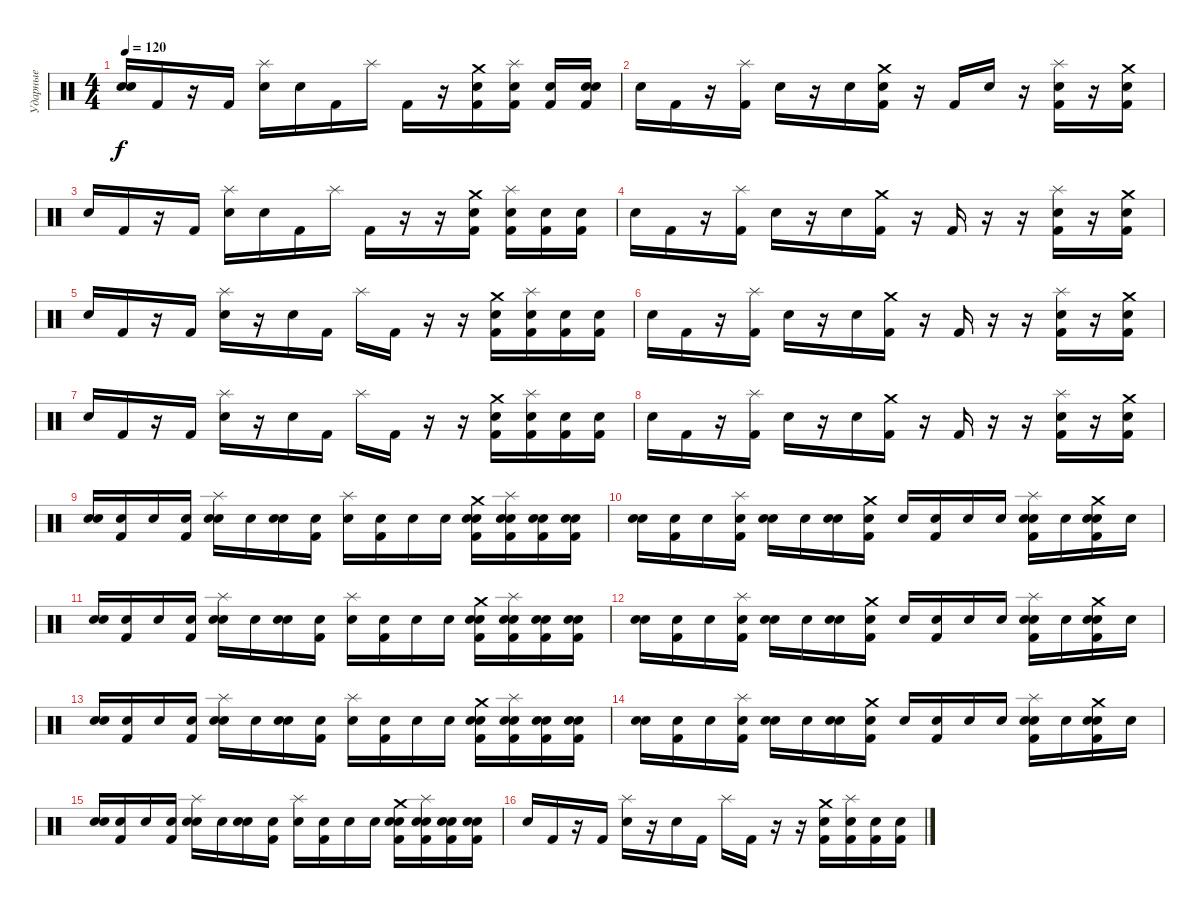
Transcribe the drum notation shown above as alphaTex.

\track ("Ударные" "Ударные") {instrument percussion}
\staff {score}
\articulation defaults
\ts (4 4)
\tempo 120
\clef neutral
\ks c
("Snare (hit)" "Electric Snare (hit)").16{dy f} "Kick (hit) 2".16 r.16 "Kick (hit) 2".16 ("Splash (hit)" "Electric Snare (hit)").16 "Electric Snare (hit)".16 "Kick (hit) 2".16 "Splash (hit)".16 "Kick (hit) 2".16 r.16 ("Crash medium (hit)" "Electric Snare (hit)" "Kick (hit) 2").16 ("Splash (hit)" "Electric Snare (hit)" "Kick (hit) 2").16 ("Electric Snare (hit)" "Kick (hit) 2").16 ("Snare (hit)" "Electric Snare (hit)" "Kick (hit) 2").16 |
"Electric Snare (hit)".16 "Kick (hit) 2".16 r.16 ("Splash (hit)" "Kick (hit) 2").16 "Electric Snare (hit)".16 r.16 "Electric Snare (hit)".16 ("Crash medium (hit)" "Snare (hit)" "Kick (hit) 2").16 r.16 "Kick (hit) 2".16 "Snare (hit)".16 r.16 ("Splash (hit)" "Electric Snare (hit)" "Kick (hit) 2").16 r.16 ("Crash medium (hit)" "Electric Snare (hit)" "Kick (hit) 2").16 |
"Electric Snare (hit)".16 "Kick (hit) 2".16 r.16 "Kick (hit) 2".16 ("Splash (hit)" "Electric Snare (hit)").16 "Electric Snare (hit)".16 "Kick (hit) 2".16 "Splash (hit)".16 "Kick (hit) 2".16 r.16 r.16 ("Crash medium (hit)" "Electric Snare (hit)" "Kick (hit) 2").16 ("Splash (hit)" "Electric Snare (hit)" "Kick (hit) 2").16 ("Electric Snare (hit)" "Kick (hit) 2").16 ("Electric Snare (hit)" "Kick (hit) 2").16 |
"Electric Snare (hit)".16 "Kick (hit) 2".16 r.16 ("Splash (hit)" "Kick (hit) 2").16 "Electric Snare (hit)".16 r.16 "Electric Snare (hit)".16 ("Crash medium (hit)" "Kick (hit) 2").16 r.16 "Kick (hit) 2".16 r.16 r.16 ("Splash (hit)" "Electric Snare (hit)" "Kick (hit) 2").16 r.16 ("Crash medium (hit)" "Electric Snare (hit)" "Kick (hit) 2").16 |
"Electric Snare (hit)".16 "Kick (hit) 2".16 r.16 "Kick (hit) 2".16 ("Splash (hit)" "Electric Snare (hit)").16 r.16 "Electric Snare (hit)".16 "Kick (hit) 2".16 "Splash (hit)".16 "Kick (hit) 2".16 r.16 r.16 ("Crash medium (hit)" "Electric Snare (hit)" "Kick (hit) 2").16 ("Splash (hit)" "Electric Snare (hit)" "Kick (hit) 2").16 ("Electric Snare (hit)" "Kick (hit) 2").16 ("Electric Snare (hit)" "Kick (hit) 2").16 |
"Electric Snare (hit)".16 "Kick (hit) 2".16 r.16 ("Splash (hit)" "Kick (hit) 2").16 "Electric Snare (hit)".16 r.16 "Electric Snare (hit)".16 ("Crash medium (hit)" "Kick (hit) 2").16 r.16 "Kick (hit) 2".16 r.16 r.16 ("Splash (hit)" "Electric Snare (hit)" "Kick (hit) 2").16 r.16 ("Crash medium (hit)" "Electric Snare (hit)" "Kick (hit) 2").16 |
"Electric Snare (hit)".16 "Kick (hit) 2".16 r.16 "Kick (hit) 2".16 ("Splash (hit)" "Electric Snare (hit)").16 r.16 "Electric Snare (hit)".16 "Kick (hit) 2".16 "Splash (hit)".16 "Kick (hit) 2".16 r.16 r.16 ("Crash medium (hit)" "Electric Snare (hit)" "Kick (hit) 2").16 ("Splash (hit)" "Electric Snare (hit)" "Kick (hit) 2").16 ("Electric Snare (hit)" "Kick (hit) 2").16 ("Electric Snare (hit)" "Kick (hit) 2").16 |
"Electric Snare (hit)".16 "Kick (hit) 2".16 r.16 ("Splash (hit)" "Kick (hit) 2").16 "Electric Snare (hit)".16 r.16 "Electric Snare (hit)".16 ("Crash medium (hit)" "Kick (hit) 2").16 r.16 "Kick (hit) 2".16 r.16 r.16 ("Splash (hit)" "Electric Snare (hit)" "Kick (hit) 2").16 r.16 ("Crash medium (hit)" "Electric Snare (hit)" "Kick (hit) 2").16 |
("Snare (hit)" "Electric Snare (hit)").16 ("Snare (hit)" "Kick (hit) 2").16 "Snare (hit)".16 ("Snare (hit)" "Kick (hit) 2").16 ("Splash (hit)" "Snare (hit)" "Electric Snare (hit)").16 "Snare (hit)".16 ("Snare (hit)" "Electric Snare (hit)").16 ("Snare (hit)" "Kick (hit) 2").16 ("Splash (hit)" "Snare (hit)").16 ("Snare (hit)" "Kick (hit) 2").16 "Snare (hit)".16 "Snare (hit)".16 ("Crash medium (hit)" "Snare (hit)" "Electric Snare (hit)" "Kick (hit) 2").16 ("Splash (hit)" "Snare (hit)" "Electric Snare (hit)" "Kick (hit) 2").16 ("Snare (hit)" "Electric Snare (hit)" "Kick (hit) 2").16 ("Snare (hit)" "Electric Snare (hit)" "Kick (hit) 2").16 |
("Snare (hit)" "Electric Snare (hit)").16 ("Snare (hit)" "Kick (hit) 2").16 "Snare (hit)".16 ("Splash (hit)" "Snare (hit)" "Kick (hit) 2").16 ("Snare (hit)" "Electric Snare (hit)").16 "Snare (hit)".16 ("Snare (hit)" "Electric Snare (hit)").16 ("Crash medium (hit)" "Snare (hit)" "Kick (hit) 2").16 "Snare (hit)".16 ("Snare (hit)" "Kick (hit) 2").16 "Snare (hit)".16 "Snare (hit)".16 ("Splash (hit)" "Snare (hit)" "Electric Snare (hit)" "Kick (hit) 2").16 "Snare (hit)".16 ("Crash medium (hit)" "Snare (hit)" "Electric Snare (hit)" "Kick (hit) 2").16 "Snare (hit)".16 |
("Snare (hit)" "Electric Snare (hit)").16 ("Snare (hit)" "Kick (hit) 2").16 "Snare (hit)".16 ("Snare (hit)" "Kick (hit) 2").16 ("Splash (hit)" "Snare (hit)" "Electric Snare (hit)").16 "Snare (hit)".16 ("Snare (hit)" "Electric Snare (hit)").16 ("Snare (hit)" "Kick (hit) 2").16 ("Splash (hit)" "Snare (hit)").16 ("Snare (hit)" "Kick (hit) 2").16 "Snare (hit)".16 "Snare (hit)".16 ("Crash medium (hit)" "Snare (hit)" "Electric Snare (hit)" "Kick (hit) 2").16 ("Splash (hit)" "Snare (hit)" "Electric Snare (hit)" "Kick (hit) 2").16 ("Snare (hit)" "Electric Snare (hit)" "Kick (hit) 2").16 ("Snare (hit)" "Electric Snare (hit)" "Kick (hit) 2").16 |
("Snare (hit)" "Electric Snare (hit)").16 ("Snare (hit)" "Kick (hit) 2").16 "Snare (hit)".16 ("Splash (hit)" "Snare (hit)" "Kick (hit) 2").16 ("Snare (hit)" "Electric Snare (hit)").16 "Snare (hit)".16 ("Snare (hit)" "Electric Snare (hit)").16 ("Crash medium (hit)" "Snare (hit)" "Kick (hit) 2").16 "Snare (hit)".16 ("Snare (hit)" "Kick (hit) 2").16 "Snare (hit)".16 "Snare (hit)".16 ("Splash (hit)" "Snare (hit)" "Electric Snare (hit)" "Kick (hit) 2").16 "Snare (hit)".16 ("Crash medium (hit)" "Snare (hit)" "Electric Snare (hit)" "Kick (hit) 2").16 "Snare (hit)".16 |
("Snare (hit)" "Electric Snare (hit)").16 ("Snare (hit)" "Kick (hit) 2").16 "Snare (hit)".16 ("Snare (hit)" "Kick (hit) 2").16 ("Splash (hit)" "Snare (hit)" "Electric Snare (hit)").16 "Snare (hit)".16 ("Snare (hit)" "Electric Snare (hit)").16 ("Snare (hit)" "Kick (hit) 2").16 ("Splash (hit)" "Snare (hit)").16 ("Snare (hit)" "Kick (hit) 2").16 "Snare (hit)".16 "Snare (hit)".16 ("Crash medium (hit)" "Snare (hit)" "Electric Snare (hit)" "Kick (hit) 2").16 ("Splash (hit)" "Snare (hit)" "Electric Snare (hit)" "Kick (hit) 2").16 ("Snare (hit)" "Electric Snare (hit)" "Kick (hit) 2").16 ("Snare (hit)" "Electric Snare (hit)" "Kick (hit) 2").16 |
("Snare (hit)" "Electric Snare (hit)").16 ("Snare (hit)" "Kick (hit) 2").16 "Snare (hit)".16 ("Splash (hit)" "Snare (hit)" "Kick (hit) 2").16 ("Snare (hit)" "Electric Snare (hit)").16 "Snare (hit)".16 ("Snare (hit)" "Electric Snare (hit)").16 ("Crash medium (hit)" "Snare (hit)" "Kick (hit) 2").16 "Snare (hit)".16 ("Snare (hit)" "Kick (hit) 2").16 "Snare (hit)".16 "Snare (hit)".16 ("Splash (hit)" "Snare (hit)" "Electric Snare (hit)" "Kick (hit) 2").16 "Snare (hit)".16 ("Crash medium (hit)" "Snare (hit)" "Electric Snare (hit)" "Kick (hit) 2").16 "Snare (hit)".16 |
("Snare (hit)" "Electric Snare (hit)").16 ("Snare (hit)" "Kick (hit) 2").16 "Snare (hit)".16 ("Snare (hit)" "Kick (hit) 2").16 ("Splash (hit)" "Snare (hit)" "Electric Snare (hit)").16 "Snare (hit)".16 ("Snare (hit)" "Electric Snare (hit)").16 ("Snare (hit)" "Kick (hit) 2").16 ("Splash (hit)" "Snare (hit)").16 ("Snare (hit)" "Kick (hit) 2").16 "Snare (hit)".16 "Snare (hit)".16 ("Crash medium (hit)" "Snare (hit)" "Electric Snare (hit)" "Kick (hit) 2").16 ("Splash (hit)" "Snare (hit)" "Electric Snare (hit)" "Kick (hit) 2").16 ("Snare (hit)" "Electric Snare (hit)" "Kick (hit) 2").16 ("Snare (hit)" "Electric Snare (hit)" "Kick (hit) 2").16 |
"Electric Snare (hit)".16 "Kick (hit) 2".16 r.16 "Kick (hit) 2".16 ("Splash (hit)" "Electric Snare (hit)").16 r.16 "Electric Snare (hit)".16 "Kick (hit) 2".16 "Splash (hit)".16 "Kick (hit) 2".16 r.16 r.16 ("Crash medium (hit)" "Electric Snare (hit)" "Kick (hit) 2").16 ("Splash (hit)" "Electric Snare (hit)" "Kick (hit) 2").16 ("Electric Snare (hit)" "Kick (hit) 2").16 ("Electric Snare (hit)" "Kick (hit) 2").16
